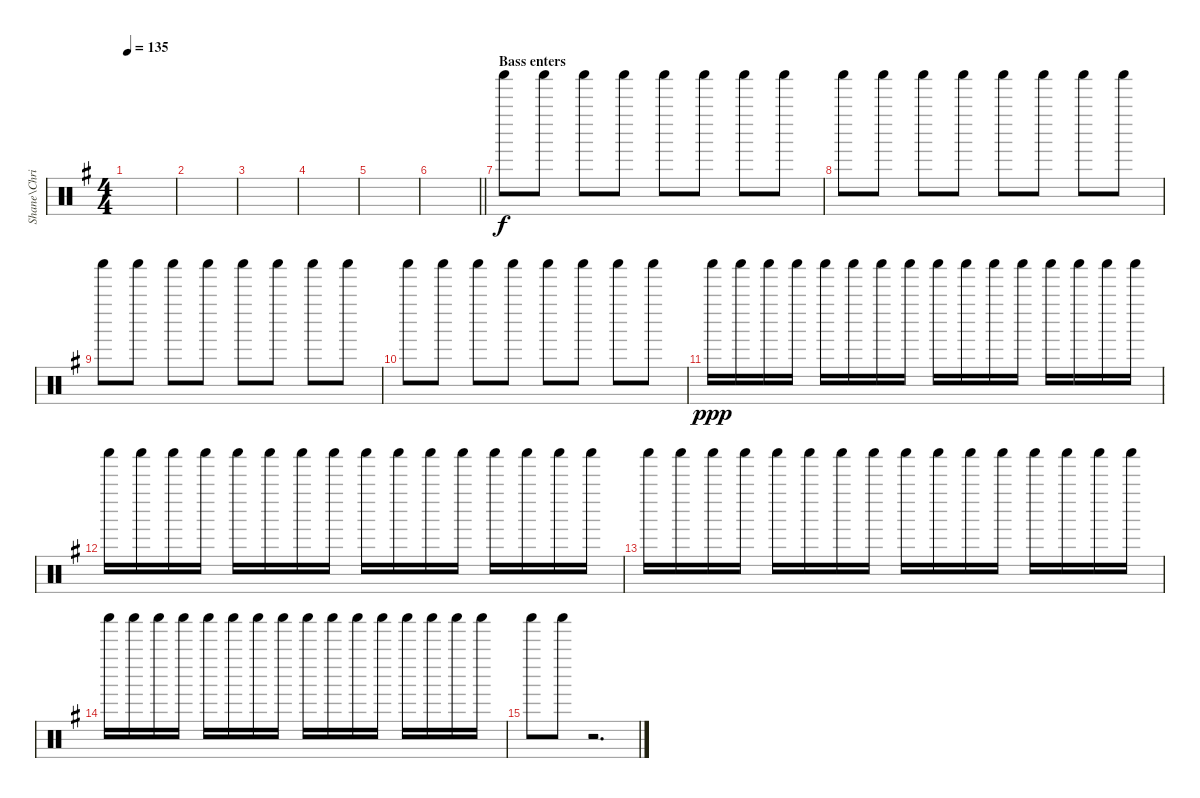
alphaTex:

\track ("Shane\\Chris - Percussion" "Shane\\Chri") {instrument percussion}
\staff {score}
\articulation defaults
\ts (4 4)
\tempo 135
\clef neutral
\ks g
|
|
|
|
|
\barLineRight lightlight
|
\section ("" "Bass enters")
"Shaker (hit)".8 "Shaker (hit)".8 "Shaker (hit)".8 "Shaker (hit)".8 "Shaker (hit)".8 "Shaker (hit)".8 "Shaker (hit)".8 "Shaker (hit)".8 |
"Shaker (hit)".8 "Shaker (hit)".8 "Shaker (hit)".8 "Shaker (hit)".8 "Shaker (hit)".8 "Shaker (hit)".8 "Shaker (hit)".8 "Shaker (hit)".8 |
"Shaker (hit)".8 "Shaker (hit)".8 "Shaker (hit)".8 "Shaker (hit)".8 "Shaker (hit)".8 "Shaker (hit)".8 "Shaker (hit)".8 "Shaker (hit)".8 |
"Shaker (hit)".8 "Shaker (hit)".8 "Shaker (hit)".8 "Shaker (hit)".8 "Shaker (hit)".8 "Shaker (hit)".8 "Shaker (hit)".8 "Shaker (hit)".8 |
"Shaker (hit)".16{dy ppp} "Shaker (hit)".16 "Shaker (hit)".16 "Shaker (hit)".16 "Shaker (hit)".16 "Shaker (hit)".16 "Shaker (hit)".16 "Shaker (hit)".16 "Shaker (hit)".16 "Shaker (hit)".16 "Shaker (hit)".16 "Shaker (hit)".16 "Shaker (hit)".16 "Shaker (hit)".16 "Shaker (hit)".16 "Shaker (hit)".16 |
"Shaker (hit)".16 "Shaker (hit)".16 "Shaker (hit)".16 "Shaker (hit)".16 "Shaker (hit)".16 "Shaker (hit)".16 "Shaker (hit)".16 "Shaker (hit)".16 "Shaker (hit)".16 "Shaker (hit)".16 "Shaker (hit)".16 "Shaker (hit)".16 "Shaker (hit)".16 "Shaker (hit)".16 "Shaker (hit)".16 "Shaker (hit)".16 |
"Shaker (hit)".16 "Shaker (hit)".16 "Shaker (hit)".16 "Shaker (hit)".16 "Shaker (hit)".16 "Shaker (hit)".16 "Shaker (hit)".16 "Shaker (hit)".16 "Shaker (hit)".16 "Shaker (hit)".16 "Shaker (hit)".16 "Shaker (hit)".16 "Shaker (hit)".16 "Shaker (hit)".16 "Shaker (hit)".16 "Shaker (hit)".16 |
"Shaker (hit)".16 "Shaker (hit)".16 "Shaker (hit)".16 "Shaker (hit)".16 "Shaker (hit)".16 "Shaker (hit)".16 "Shaker (hit)".16 "Shaker (hit)".16 "Shaker (hit)".16 "Shaker (hit)".16 "Shaker (hit)".16 "Shaker (hit)".16 "Shaker (hit)".16 "Shaker (hit)".16 "Shaker (hit)".16 "Shaker (hit)".16 |
"Shaker (hit)".8 "Shaker (hit)".8 r.2{d}
